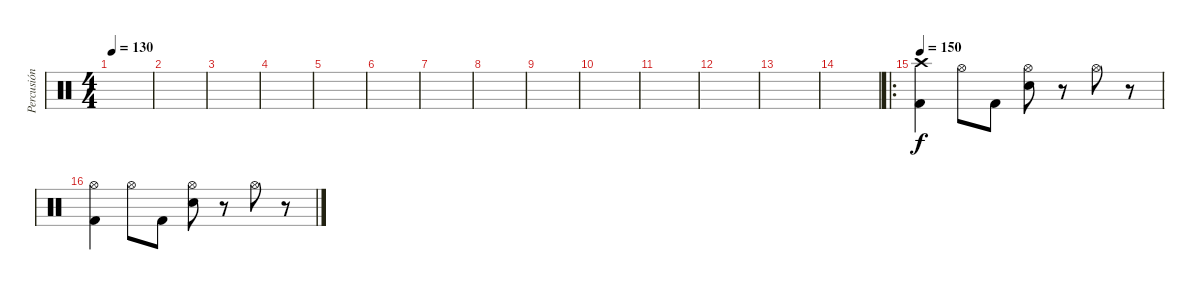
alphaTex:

\track ("Percusión" "Percusión") {instrument percussion}
\staff {score}
\articulation defaults
\ts (4 4)
\tempo 130
\clef neutral
\ks c
|
|
|
|
|
|
|
|
|
|
|
|
|
|
\ro
\tempo 150
("Crash high (hit)" "Kick (hit) 2").4 "Hi-Hat (open)".8 "Kick (hit) 2".8 ("Hi-Hat (open)" "Electric Snare (hit)").8 r.8 "Hi-Hat (open)".8 r.8 |
("Hi-Hat (open)" "Kick (hit) 2").4 "Hi-Hat (open)".8 "Kick (hit) 2".8 ("Hi-Hat (open)" "Electric Snare (hit)").8 r.8 "Hi-Hat (open)".8 r.8
